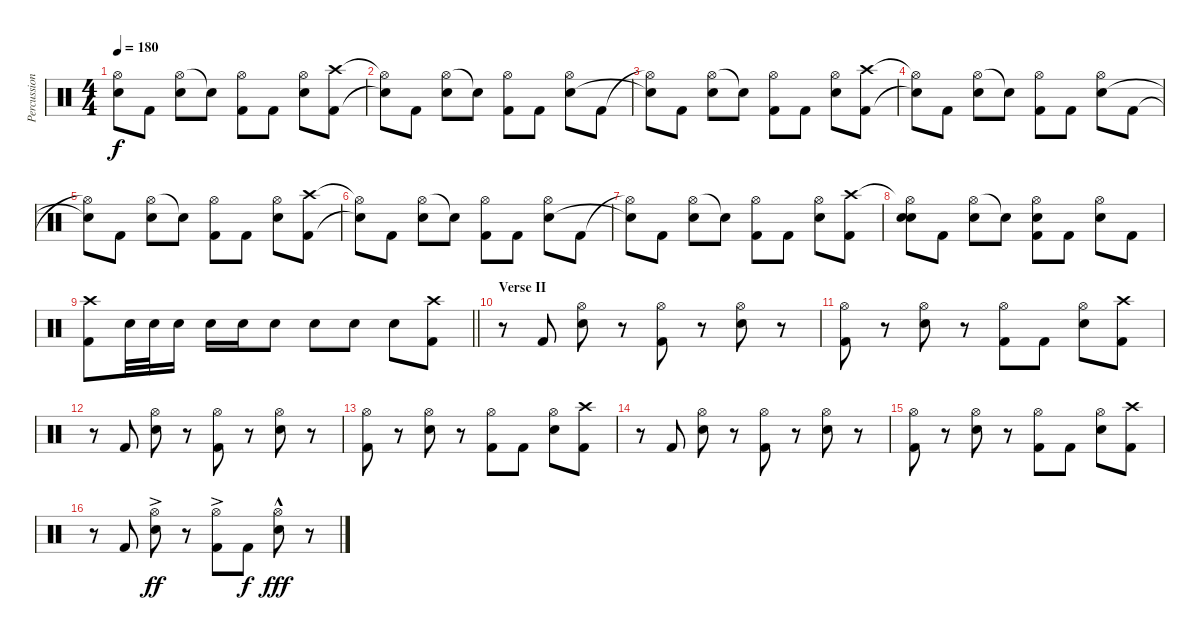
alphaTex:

\track ("Percussion" "Percussion") {instrument percussion}
\staff {score}
\articulation defaults
\ts (4 4)
\tempo 180
\clef neutral
\ks c
("Hi-Hat (open)"{t} "Snare (hit)"{t}).8{dy f} "Kick (hit) 2".8 ("Hi-Hat (open)" "Electric Snare (hit)").8 "Snare (hit)"{t}.8 ("Hi-Hat (open)" "Kick (hit) 2").8 "Kick (hit) 2".8 ("Hi-Hat (open)" "Electric Snare (hit)").8 ("Crash high (hit)" "Kick (hit) 2").8 |
("Hi-Hat (open)"{t} "Snare (hit)"{t}).8 "Kick (hit) 2".8 ("Hi-Hat (open)" "Electric Snare (hit)").8 "Snare (hit)"{t}.8 ("Hi-Hat (open)" "Kick (hit) 2").8 "Kick (hit) 2".8 ("Hi-Hat (open)" "Electric Snare (hit)").8 "Kick (hit) 2".8 |
("Hi-Hat (open)"{t} "Snare (hit)"{t}).8 "Kick (hit) 2".8 ("Hi-Hat (open)" "Electric Snare (hit)").8 "Snare (hit)"{t}.8 ("Hi-Hat (open)" "Kick (hit) 2").8 "Kick (hit) 2".8 ("Hi-Hat (open)" "Electric Snare (hit)").8 ("Crash high (hit)" "Kick (hit) 2").8 |
("Hi-Hat (open)"{t} "Snare (hit)"{t}).8 "Kick (hit) 2".8 ("Hi-Hat (open)" "Electric Snare (hit)").8 "Snare (hit)"{t}.8 ("Hi-Hat (open)" "Kick (hit) 2").8 "Kick (hit) 2".8 ("Hi-Hat (open)" "Electric Snare (hit)").8 "Kick (hit) 2".8 |
("Hi-Hat (open)"{t} "Snare (hit)"{t}).8 "Kick (hit) 2".8 ("Hi-Hat (open)" "Electric Snare (hit)").8 "Snare (hit)"{t}.8 ("Hi-Hat (open)" "Kick (hit) 2").8 "Kick (hit) 2".8 ("Hi-Hat (open)" "Electric Snare (hit)").8 ("Crash high (hit)" "Kick (hit) 2").8 |
("Hi-Hat (open)"{t} "Snare (hit)"{t}).8 "Kick (hit) 2".8 ("Hi-Hat (open)" "Electric Snare (hit)").8 "Snare (hit)"{t}.8 ("Hi-Hat (open)" "Kick (hit) 2").8 "Kick (hit) 2".8 ("Hi-Hat (open)" "Electric Snare (hit)").8 "Kick (hit) 2".8 |
("Hi-Hat (open)"{t} "Snare (hit)"{t}).8 "Kick (hit) 2".8 ("Hi-Hat (open)" "Electric Snare (hit)").8 "Snare (hit)"{t}.8 ("Hi-Hat (open)" "Kick (hit) 2").8 "Kick (hit) 2".8 ("Hi-Hat (open)" "Electric Snare (hit)").8 ("Crash high (hit)" "Kick (hit) 2").8 |
("Hi-Hat (open)"{t} "Electric Snare (hit)" "Snare (hit)").8 "Kick (hit) 2".8 ("Hi-Hat (open)" "Electric Snare (hit)").8 "Snare (hit)"{t}.8 ("Hi-Hat (open)" "Electric Snare (hit)" "Kick (hit) 2").8 "Kick (hit) 2".8 ("Hi-Hat (open)" "Electric Snare (hit)").8 "Kick (hit) 2".8 |
\barLineRight lightlight
("Crash high (hit)" "Kick (hit) 2").8 "Electric Snare (hit)".32 "Electric Snare (hit)".32 "Electric Snare (hit)".16 "Electric Snare (hit)".16 "Electric Snare (hit)".16 "Electric Snare (hit)".8 "Electric Snare (hit)".8 "Electric Snare (hit)".8 "Electric Snare (hit)".8 ("Crash high (hit)" "Kick (hit) 2").8 |
\section ("" "Verse II")
r.8 "Kick (hit) 2".8 ("Hi-Hat (open)" "Electric Snare (hit)").8 r.8 ("Hi-Hat (open)" "Kick (hit) 2").8 r.8 ("Hi-Hat (open)" "Electric Snare (hit)").8 r.8 |
("Hi-Hat (open)" "Kick (hit) 2").8 r.8 ("Hi-Hat (open)" "Electric Snare (hit)").8 r.8 ("Hi-Hat (open)" "Kick (hit) 2").8 "Kick (hit) 2".8 ("Hi-Hat (open)" "Electric Snare (hit)").8 ("Crash high (hit)" "Kick (hit) 2").8 |
r.8 "Kick (hit) 2".8 ("Hi-Hat (open)" "Electric Snare (hit)").8 r.8 ("Hi-Hat (open)" "Kick (hit) 2").8 r.8 ("Hi-Hat (open)" "Electric Snare (hit)").8 r.8 |
("Hi-Hat (open)" "Kick (hit) 2").8 r.8 ("Hi-Hat (open)" "Electric Snare (hit)").8 r.8 ("Hi-Hat (open)" "Kick (hit) 2").8 "Kick (hit) 2".8 ("Hi-Hat (open)" "Electric Snare (hit)").8 ("Crash high (hit)" "Kick (hit) 2").8 |
r.8 "Kick (hit) 2".8 ("Hi-Hat (open)" "Electric Snare (hit)").8 r.8 ("Hi-Hat (open)" "Kick (hit) 2").8 r.8 ("Hi-Hat (open)" "Electric Snare (hit)").8 r.8 |
("Hi-Hat (open)" "Kick (hit) 2").8 r.8 ("Hi-Hat (open)" "Electric Snare (hit)").8 r.8 ("Hi-Hat (open)" "Kick (hit) 2").8 "Kick (hit) 2".8 ("Hi-Hat (open)" "Electric Snare (hit)").8 ("Crash high (hit)" "Kick (hit) 2").8 |
r.8 "Kick (hit) 2".8 ("Hi-Hat (open)"{ac} "Electric Snare (hit)").8{dy ff} r.8 ("Hi-Hat (open)"{ac} "Kick (hit) 2").8 "Kick (hit) 2".8{dy f} ("Hi-Hat (open)"{hac} "Electric Snare (hit)").8{dy fff} r.8
